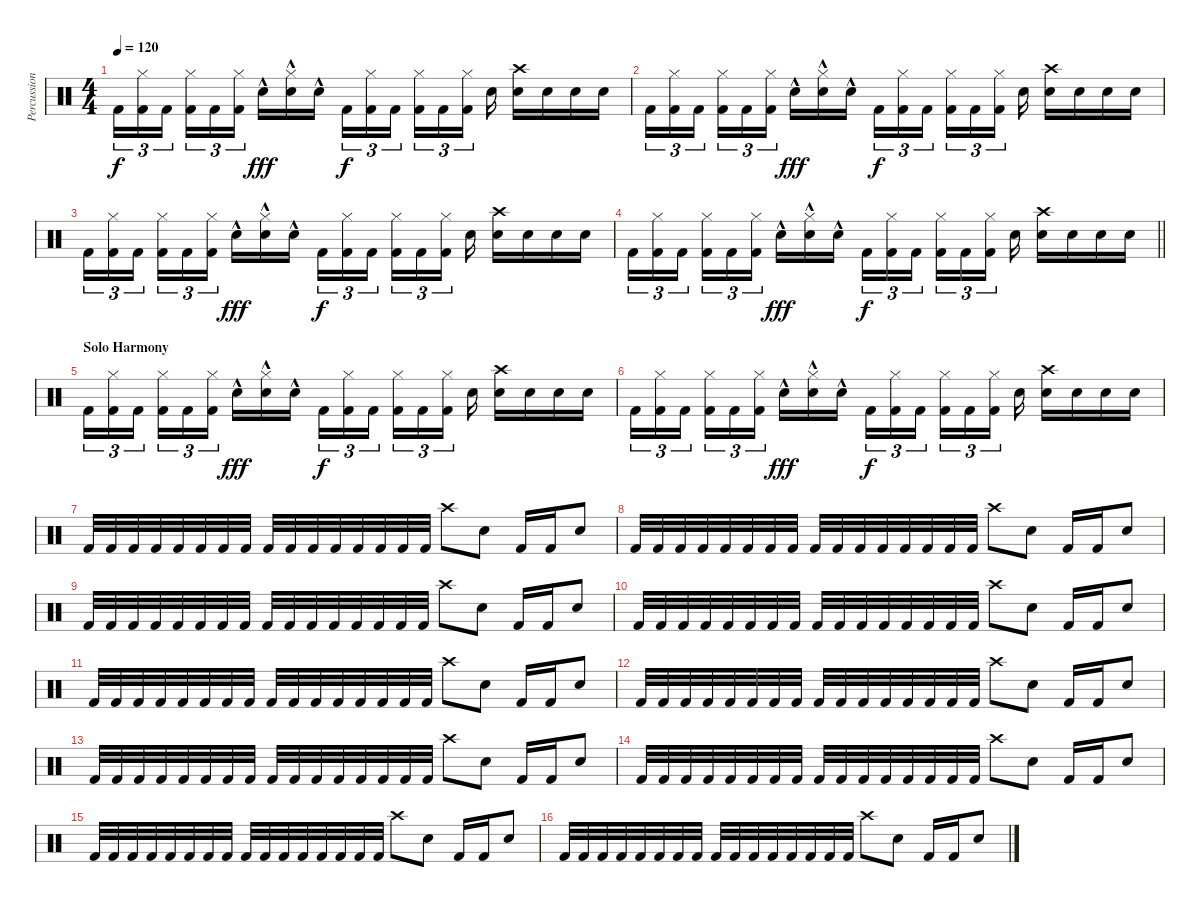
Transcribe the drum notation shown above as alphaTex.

\track ("Percussion" "Percussion") {instrument percussion}
\staff {score}
\articulation defaults
\ts (4 4)
\tempo 120
\clef neutral
\ks c "Kick (hit) 2".16{tu (3 2) dy f}
("Hi-Hat (closed)" "Kick (hit) 2").16{tu (3 2)} "Kick (hit) 2".16{tu (3 2) beam splitsecondary} ("Hi-Hat (closed)" "Kick (hit) 2").16{tu (3 2)} "Kick (hit) 2".16{tu (3 2)} ("Hi-Hat (closed)" "Kick (hit) 2").16{tu (3 2)} "Electric Snare (hit)"{hac}.16{dy fff} ("Hi-Hat (closed)"{hac} "Electric Snare (hit)"{hac}).16 "Electric Snare (hit)"{hac}.16{beam splitsecondary} "Kick (hit) 2".16{tu (3 2) dy f} ("Hi-Hat (closed)" "Kick (hit) 2").16{tu (3 2)} "Kick (hit) 2".16{tu (3 2) beam splitsecondary} ("Hi-Hat (closed)" "Kick (hit) 2").16{tu (3 2)} "Kick (hit) 2".16{tu (3 2)} ("Hi-Hat (closed)" "Kick (hit) 2").16{tu (3 2) beam splitsecondary} "Electric Snare (hit)".16 ("Electric Snare (hit)" "Crash high (hit)").16 "Electric Snare (hit)".16 "Electric Snare (hit)".16 "Electric Snare (hit)".16 |
"Kick (hit) 2".16{tu (3 2)} ("Hi-Hat (closed)" "Kick (hit) 2").16{tu (3 2)} "Kick (hit) 2".16{tu (3 2) beam splitsecondary} ("Hi-Hat (closed)" "Kick (hit) 2").16{tu (3 2)} "Kick (hit) 2".16{tu (3 2)} ("Hi-Hat (closed)" "Kick (hit) 2").16{tu (3 2)} "Electric Snare (hit)"{hac}.16{dy fff} ("Hi-Hat (closed)"{hac} "Electric Snare (hit)"{hac}).16 "Electric Snare (hit)"{hac}.16{beam splitsecondary} "Kick (hit) 2".16{tu (3 2) dy f} ("Hi-Hat (closed)" "Kick (hit) 2").16{tu (3 2)} "Kick (hit) 2".16{tu (3 2) beam splitsecondary} ("Hi-Hat (closed)" "Kick (hit) 2").16{tu (3 2)} "Kick (hit) 2".16{tu (3 2)} ("Hi-Hat (closed)" "Kick (hit) 2").16{tu (3 2) beam splitsecondary} "Electric Snare (hit)".16 ("Electric Snare (hit)" "Crash high (hit)").16 "Electric Snare (hit)".16 "Electric Snare (hit)".16 "Electric Snare (hit)".16 |
"Kick (hit) 2".16{tu (3 2)} ("Hi-Hat (closed)" "Kick (hit) 2").16{tu (3 2)} "Kick (hit) 2".16{tu (3 2) beam splitsecondary} ("Hi-Hat (closed)" "Kick (hit) 2").16{tu (3 2)} "Kick (hit) 2".16{tu (3 2)} ("Hi-Hat (closed)" "Kick (hit) 2").16{tu (3 2)} "Electric Snare (hit)"{hac}.16{dy fff} ("Hi-Hat (closed)"{hac} "Electric Snare (hit)"{hac}).16 "Electric Snare (hit)"{hac}.16{beam splitsecondary} "Kick (hit) 2".16{tu (3 2) dy f} ("Hi-Hat (closed)" "Kick (hit) 2").16{tu (3 2)} "Kick (hit) 2".16{tu (3 2) beam splitsecondary} ("Hi-Hat (closed)" "Kick (hit) 2").16{tu (3 2)} "Kick (hit) 2".16{tu (3 2)} ("Hi-Hat (closed)" "Kick (hit) 2").16{tu (3 2) beam splitsecondary} "Electric Snare (hit)".16 ("Electric Snare (hit)" "Crash high (hit)").16 "Electric Snare (hit)".16 "Electric Snare (hit)".16 "Electric Snare (hit)".16 |
\barLineRight lightlight "Kick (hit) 2".16{tu (3 2)}
("Hi-Hat (closed)" "Kick (hit) 2").16{tu (3 2)} "Kick (hit) 2".16{tu (3 2) beam splitsecondary} ("Hi-Hat (closed)" "Kick (hit) 2").16{tu (3 2)} "Kick (hit) 2".16{tu (3 2)} ("Hi-Hat (closed)" "Kick (hit) 2").16{tu (3 2)} "Electric Snare (hit)"{hac}.16{dy fff} ("Hi-Hat (closed)"{hac} "Electric Snare (hit)"{hac}).16 "Electric Snare (hit)"{hac}.16{beam splitsecondary} "Kick (hit) 2".16{tu (3 2) dy f} ("Hi-Hat (closed)" "Kick (hit) 2").16{tu (3 2)} "Kick (hit) 2".16{tu (3 2) beam splitsecondary} ("Hi-Hat (closed)" "Kick (hit) 2").16{tu (3 2)} "Kick (hit) 2".16{tu (3 2)} ("Hi-Hat (closed)" "Kick (hit) 2").16{tu (3 2) beam splitsecondary} "Electric Snare (hit)".16 ("Electric Snare (hit)" "Crash high (hit)").16 "Electric Snare (hit)".16 "Electric Snare (hit)".16 "Electric Snare (hit)".16 |
\section ("" "Solo Harmony")
"Kick (hit) 2".16{tu (3 2)} ("Hi-Hat (closed)" "Kick (hit) 2").16{tu (3 2)} "Kick (hit) 2".16{tu (3 2) beam splitsecondary} ("Hi-Hat (closed)" "Kick (hit) 2").16{tu (3 2)} "Kick (hit) 2".16{tu (3 2)} ("Hi-Hat (closed)" "Kick (hit) 2").16{tu (3 2)} "Electric Snare (hit)"{hac}.16{dy fff} ("Hi-Hat (closed)"{hac} "Electric Snare (hit)"{hac}).16 "Electric Snare (hit)"{hac}.16{beam splitsecondary} "Kick (hit) 2".16{tu (3 2) dy f} ("Hi-Hat (closed)" "Kick (hit) 2").16{tu (3 2)} "Kick (hit) 2".16{tu (3 2) beam splitsecondary} ("Hi-Hat (closed)" "Kick (hit) 2").16{tu (3 2)} "Kick (hit) 2".16{tu (3 2)} ("Hi-Hat (closed)" "Kick (hit) 2").16{tu (3 2) beam splitsecondary} "Electric Snare (hit)".16 ("Electric Snare (hit)" "Crash high (hit)").16 "Electric Snare (hit)".16 "Electric Snare (hit)".16 "Electric Snare (hit)".16 |
"Kick (hit) 2".16{tu (3 2)} ("Hi-Hat (closed)" "Kick (hit) 2").16{tu (3 2)} "Kick (hit) 2".16{tu (3 2) beam splitsecondary} ("Hi-Hat (closed)" "Kick (hit) 2").16{tu (3 2)} "Kick (hit) 2".16{tu (3 2)} ("Hi-Hat (closed)" "Kick (hit) 2").16{tu (3 2)} "Electric Snare (hit)"{hac}.16{dy fff} ("Hi-Hat (closed)"{hac} "Electric Snare (hit)"{hac}).16 "Electric Snare (hit)"{hac}.16{beam splitsecondary} "Kick (hit) 2".16{tu (3 2) dy f} ("Hi-Hat (closed)" "Kick (hit) 2").16{tu (3 2)} "Kick (hit) 2".16{tu (3 2) beam splitsecondary} ("Hi-Hat (closed)" "Kick (hit) 2").16{tu (3 2)} "Kick (hit) 2".16{tu (3 2)} ("Hi-Hat (closed)" "Kick (hit) 2").16{tu (3 2) beam splitsecondary} "Electric Snare (hit)".16 ("Electric Snare (hit)" "Crash high (hit)").16 "Electric Snare (hit)".16 "Electric Snare (hit)".16 "Electric Snare (hit)".16 |
"Kick (hit) 2".32 "Kick (hit) 2".32 "Kick (hit) 2".32 "Kick (hit) 2".32 "Kick (hit) 2".32 "Kick (hit) 2".32 "Kick (hit) 2".32 "Kick (hit) 2".32 "Kick (hit) 2".32 "Kick (hit) 2".32 "Kick (hit) 2".32 "Kick (hit) 2".32 "Kick (hit) 2".32 "Kick (hit) 2".32 "Kick (hit) 2".32 "Kick (hit) 2".32 "Crash high (hit)".8 "Electric Snare (hit)".8 "Kick (hit) 2".16 "Kick (hit) 2".16 "Electric Snare (hit)".8 |
"Kick (hit) 2".32 "Kick (hit) 2".32 "Kick (hit) 2".32 "Kick (hit) 2".32 "Kick (hit) 2".32 "Kick (hit) 2".32 "Kick (hit) 2".32 "Kick (hit) 2".32 "Kick (hit) 2".32 "Kick (hit) 2".32 "Kick (hit) 2".32 "Kick (hit) 2".32 "Kick (hit) 2".32 "Kick (hit) 2".32 "Kick (hit) 2".32 "Kick (hit) 2".32 "Crash high (hit)".8 "Electric Snare (hit)".8 "Kick (hit) 2".16 "Kick (hit) 2".16 "Electric Snare (hit)".8 |
"Kick (hit) 2".32 "Kick (hit) 2".32 "Kick (hit) 2".32 "Kick (hit) 2".32 "Kick (hit) 2".32 "Kick (hit) 2".32 "Kick (hit) 2".32 "Kick (hit) 2".32 "Kick (hit) 2".32 "Kick (hit) 2".32 "Kick (hit) 2".32 "Kick (hit) 2".32 "Kick (hit) 2".32 "Kick (hit) 2".32 "Kick (hit) 2".32 "Kick (hit) 2".32 "Crash high (hit)".8 "Electric Snare (hit)".8 "Kick (hit) 2".16 "Kick (hit) 2".16 "Electric Snare (hit)".8 |
"Kick (hit) 2".32 "Kick (hit) 2".32 "Kick (hit) 2".32 "Kick (hit) 2".32 "Kick (hit) 2".32 "Kick (hit) 2".32 "Kick (hit) 2".32 "Kick (hit) 2".32 "Kick (hit) 2".32 "Kick (hit) 2".32 "Kick (hit) 2".32 "Kick (hit) 2".32 "Kick (hit) 2".32 "Kick (hit) 2".32 "Kick (hit) 2".32 "Kick (hit) 2".32 "Crash high (hit)".8 "Electric Snare (hit)".8 "Kick (hit) 2".16 "Kick (hit) 2".16 "Electric Snare (hit)".8 |
"Kick (hit) 2".32 "Kick (hit) 2".32 "Kick (hit) 2".32 "Kick (hit) 2".32 "Kick (hit) 2".32 "Kick (hit) 2".32 "Kick (hit) 2".32 "Kick (hit) 2".32 "Kick (hit) 2".32 "Kick (hit) 2".32 "Kick (hit) 2".32 "Kick (hit) 2".32 "Kick (hit) 2".32 "Kick (hit) 2".32 "Kick (hit) 2".32 "Kick (hit) 2".32 "Crash high (hit)".8 "Electric Snare (hit)".8 "Kick (hit) 2".16 "Kick (hit) 2".16 "Electric Snare (hit)".8 |
"Kick (hit) 2".32 "Kick (hit) 2".32 "Kick (hit) 2".32 "Kick (hit) 2".32 "Kick (hit) 2".32 "Kick (hit) 2".32 "Kick (hit) 2".32 "Kick (hit) 2".32 "Kick (hit) 2".32 "Kick (hit) 2".32 "Kick (hit) 2".32 "Kick (hit) 2".32 "Kick (hit) 2".32 "Kick (hit) 2".32 "Kick (hit) 2".32 "Kick (hit) 2".32 "Crash high (hit)".8 "Electric Snare (hit)".8 "Kick (hit) 2".16 "Kick (hit) 2".16 "Electric Snare (hit)".8 |
"Kick (hit) 2".32 "Kick (hit) 2".32 "Kick (hit) 2".32 "Kick (hit) 2".32 "Kick (hit) 2".32 "Kick (hit) 2".32 "Kick (hit) 2".32 "Kick (hit) 2".32 "Kick (hit) 2".32 "Kick (hit) 2".32 "Kick (hit) 2".32 "Kick (hit) 2".32 "Kick (hit) 2".32 "Kick (hit) 2".32 "Kick (hit) 2".32 "Kick (hit) 2".32 "Crash high (hit)".8 "Electric Snare (hit)".8 "Kick (hit) 2".16 "Kick (hit) 2".16 "Electric Snare (hit)".8 |
"Kick (hit) 2".32 "Kick (hit) 2".32 "Kick (hit) 2".32 "Kick (hit) 2".32 "Kick (hit) 2".32 "Kick (hit) 2".32 "Kick (hit) 2".32 "Kick (hit) 2".32 "Kick (hit) 2".32 "Kick (hit) 2".32 "Kick (hit) 2".32 "Kick (hit) 2".32 "Kick (hit) 2".32 "Kick (hit) 2".32 "Kick (hit) 2".32 "Kick (hit) 2".32 "Crash high (hit)".8 "Electric Snare (hit)".8 "Kick (hit) 2".16 "Kick (hit) 2".16 "Electric Snare (hit)".8 |
"Kick (hit) 2".32 "Kick (hit) 2".32 "Kick (hit) 2".32 "Kick (hit) 2".32 "Kick (hit) 2".32 "Kick (hit) 2".32 "Kick (hit) 2".32 "Kick (hit) 2".32 "Kick (hit) 2".32 "Kick (hit) 2".32 "Kick (hit) 2".32 "Kick (hit) 2".32 "Kick (hit) 2".32 "Kick (hit) 2".32 "Kick (hit) 2".32 "Kick (hit) 2".32 "Crash high (hit)".8 "Electric Snare (hit)".8 "Kick (hit) 2".16 "Kick (hit) 2".16 "Electric Snare (hit)".8 |
"Kick (hit) 2".32 "Kick (hit) 2".32 "Kick (hit) 2".32 "Kick (hit) 2".32 "Kick (hit) 2".32 "Kick (hit) 2".32 "Kick (hit) 2".32 "Kick (hit) 2".32 "Kick (hit) 2".32 "Kick (hit) 2".32 "Kick (hit) 2".32 "Kick (hit) 2".32 "Kick (hit) 2".32 "Kick (hit) 2".32 "Kick (hit) 2".32 "Kick (hit) 2".32 "Crash high (hit)".8 "Electric Snare (hit)".8 "Kick (hit) 2".16 "Kick (hit) 2".16 "Electric Snare (hit)".8
